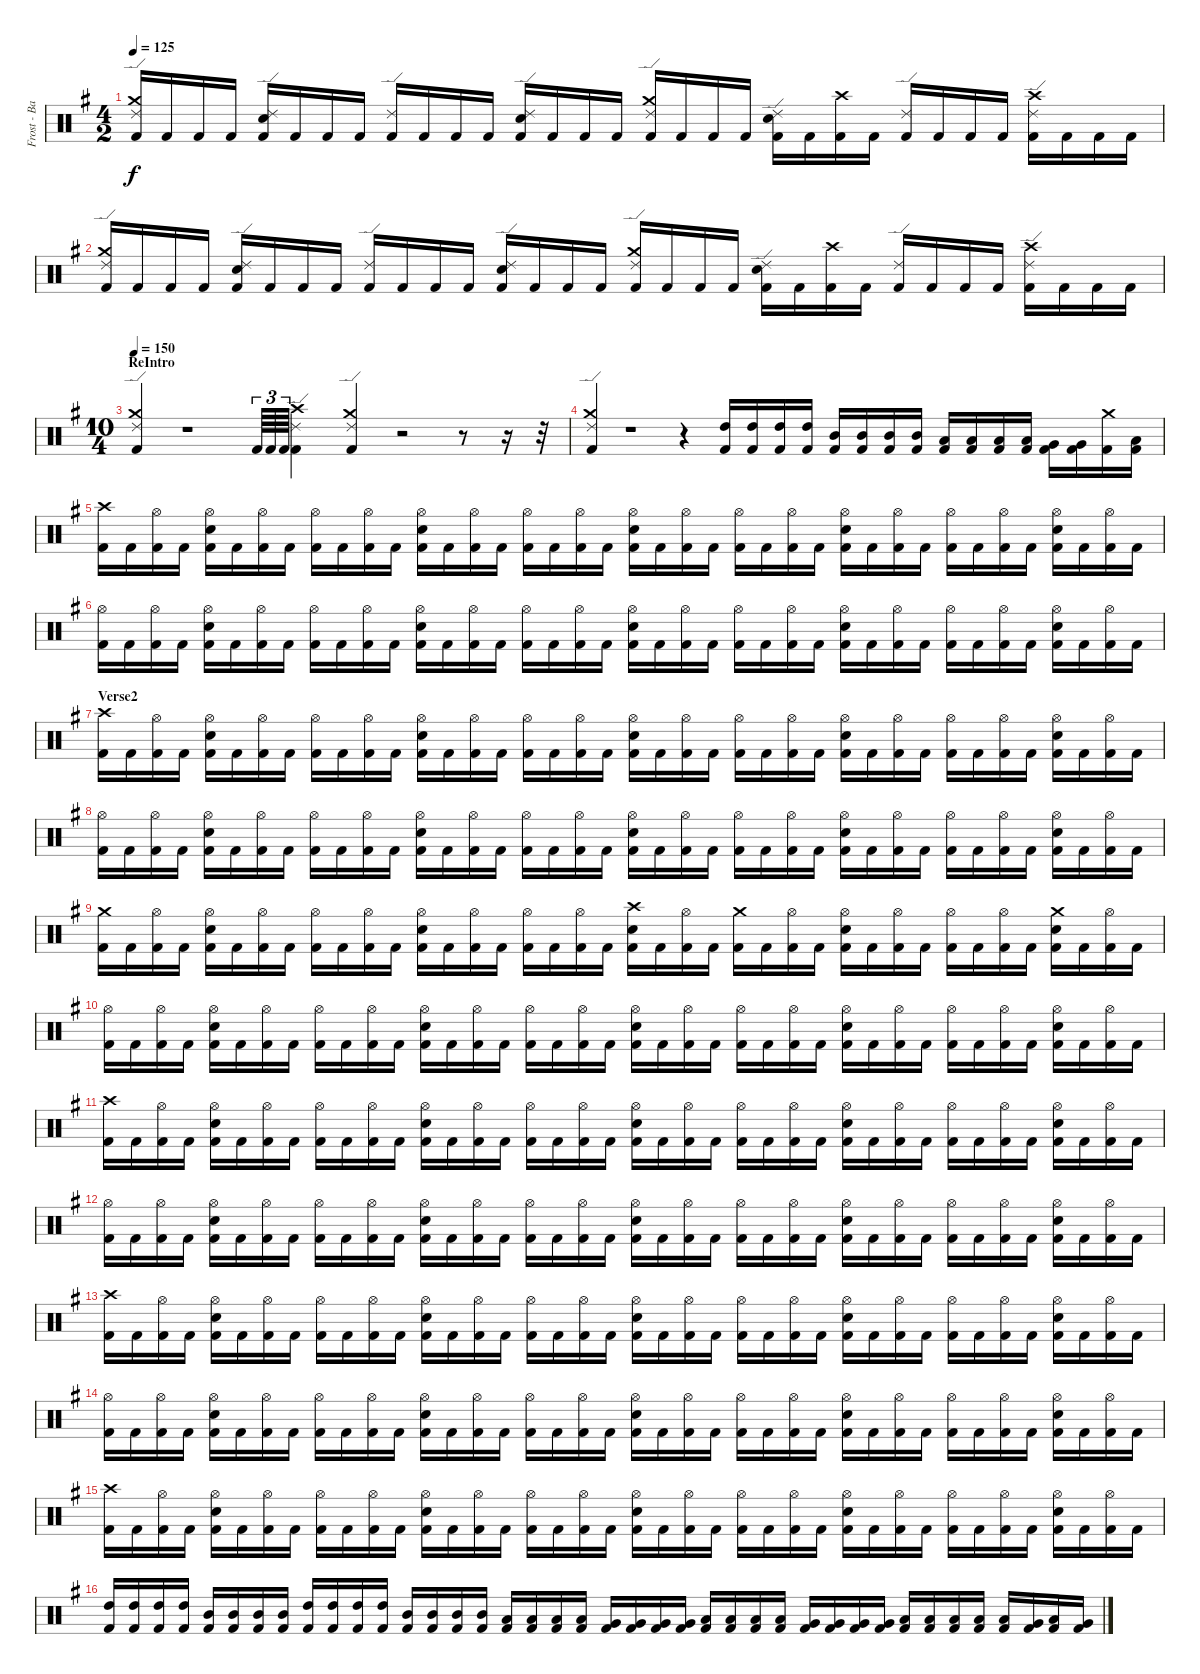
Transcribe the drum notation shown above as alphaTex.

\track ("Frost - Battery" "Frost - Ba") {instrument percussion}
\staff {score}
\articulation defaults
\ts (4 2)
\tempo 125
\clef neutral
\ks eminor
("Kick (hit) 2" "Crash medium (hit)" "Ride (edge) 2").16{dy f} "Kick (hit) 2".16 "Kick (hit) 2".16 "Kick (hit) 2".16 ("Kick (hit) 2" "Electric Snare (hit)" "Ride (edge) 2").16 "Kick (hit) 2".16 "Kick (hit) 2".16 "Kick (hit) 2".16 ("Kick (hit) 2" "Ride (edge) 2").16 "Kick (hit) 2".16 "Kick (hit) 2".16 "Kick (hit) 2".16 ("Kick (hit) 2" "Electric Snare (hit)" "Ride (edge) 2").16 "Kick (hit) 2".16 "Kick (hit) 2".16 "Kick (hit) 2".16 ("Kick (hit) 2" "Crash medium (hit)" "Ride (edge) 2").16 "Kick (hit) 2".16 "Kick (hit) 2".16 "Kick (hit) 2".16 ("Kick (hit) 2" "Electric Snare (hit)" "Ride (edge) 2").16 "Kick (hit) 2".16 ("Kick (hit) 2" "Crash high (hit)").16 "Kick (hit) 2".16 ("Kick (hit) 2" "Ride (edge) 2").16 "Kick (hit) 2".16 "Kick (hit) 2".16 "Kick (hit) 2".16 ("Kick (hit) 2" "Crash high (hit)" "Ride (edge) 2").16 "Kick (hit) 2".16 "Kick (hit) 2".16 "Kick (hit) 2".16 |
("Kick (hit) 2" "Crash medium (hit)" "Ride (edge) 2").16 "Kick (hit) 2".16 "Kick (hit) 2".16 "Kick (hit) 2".16 ("Kick (hit) 2" "Electric Snare (hit)" "Ride (edge) 2").16 "Kick (hit) 2".16 "Kick (hit) 2".16 "Kick (hit) 2".16 ("Kick (hit) 2" "Ride (edge) 2").16 "Kick (hit) 2".16 "Kick (hit) 2".16 "Kick (hit) 2".16 ("Kick (hit) 2" "Electric Snare (hit)" "Ride (edge) 2").16 "Kick (hit) 2".16 "Kick (hit) 2".16 "Kick (hit) 2".16 ("Kick (hit) 2" "Crash medium (hit)" "Ride (edge) 2").16 "Kick (hit) 2".16 "Kick (hit) 2".16 "Kick (hit) 2".16 ("Kick (hit) 2" "Electric Snare (hit)" "Ride (edge) 2").16 "Kick (hit) 2".16 ("Kick (hit) 2" "Crash high (hit)").16 "Kick (hit) 2".16 ("Kick (hit) 2" "Ride (edge) 2").16 "Kick (hit) 2".16 "Kick (hit) 2".16 "Kick (hit) 2".16 ("Kick (hit) 2" "Crash high (hit)" "Ride (edge) 2").16 "Kick (hit) 2".16 "Kick (hit) 2".16 "Kick (hit) 2".16 |
\ts (10 4)
\section ("" "ReIntro")
\tempo 150
("Kick (hit) 2" "Crash medium (hit)" "Ride (edge) 2").4 r.1 "Kick (hit) 2".64{tu (3 2)} "Kick (hit) 2".64{tu (3 2)} "Kick (hit) 2".64{tu (3 2)} ("Kick (hit) 2" "Crash high (hit)" "Ride (edge) 2").4 ("Kick (hit) 2" "Crash medium (hit)" "Ride (edge) 2").4 r.2 r.8 r.16 r.32 |
("Kick (hit) 2" "Ride (edge) 2" "Crash medium (hit)").4 r.1 r.4 ("Kick (hit) 2" "High Tom (hit)").16 ("Kick (hit) 2" "High Tom (hit)").16 ("Kick (hit) 2" "High Tom (hit)").16 ("Kick (hit) 2" "High Tom (hit)").16 ("Kick (hit) 2" "Mid Tom (hit)").16 ("Kick (hit) 2" "Mid Tom (hit)").16 ("Kick (hit) 2" "Mid Tom (hit)").16 ("Kick (hit) 2" "Mid Tom (hit)").16 ("Kick (hit) 2" "Low Tom (hit)").16 ("Kick (hit) 2" "Low Tom (hit)").16 ("Kick (hit) 2" "Low Tom (hit)").16 ("Kick (hit) 2" "Low Tom (hit)").16 ("Kick (hit) 2" "Very Low Tom (hit)").16 ("Kick (hit) 2" "Very Low Tom (hit)").16 ("Kick (hit) 2" "Crash medium (hit)").16 ("Kick (hit) 2" "Low Floor Tom (hit)").16 |
("Kick (hit) 2" "Crash high (hit)").16 "Kick (hit) 2".16 ("Kick (hit) 2" "Hi-Hat (open)").16 "Kick (hit) 2".16 ("Kick (hit) 2" "Hi-Hat (open)" "Electric Snare (hit)").16 "Kick (hit) 2".16 ("Kick (hit) 2" "Hi-Hat (open)").16 "Kick (hit) 2".16 ("Kick (hit) 2" "Hi-Hat (open)").16 "Kick (hit) 2".16 ("Kick (hit) 2" "Hi-Hat (open)").16 "Kick (hit) 2".16 ("Kick (hit) 2" "Hi-Hat (open)" "Electric Snare (hit)").16 "Kick (hit) 2".16 ("Kick (hit) 2" "Hi-Hat (open)").16 "Kick (hit) 2".16 ("Kick (hit) 2" "Hi-Hat (open)").16 "Kick (hit) 2".16 ("Kick (hit) 2" "Hi-Hat (open)").16 "Kick (hit) 2".16 ("Kick (hit) 2" "Hi-Hat (open)" "Electric Snare (hit)").16 "Kick (hit) 2".16 ("Kick (hit) 2" "Hi-Hat (open)").16 "Kick (hit) 2".16 ("Kick (hit) 2" "Hi-Hat (open)").16 "Kick (hit) 2".16 ("Kick (hit) 2" "Hi-Hat (open)").16 "Kick (hit) 2".16 ("Kick (hit) 2" "Hi-Hat (open)" "Electric Snare (hit)").16 "Kick (hit) 2".16 ("Kick (hit) 2" "Hi-Hat (open)").16 "Kick (hit) 2".16 ("Kick (hit) 2" "Hi-Hat (open)").16 "Kick (hit) 2".16 ("Kick (hit) 2" "Hi-Hat (open)").16 "Kick (hit) 2".16 ("Kick (hit) 2" "Hi-Hat (open)" "Electric Snare (hit)").16 "Kick (hit) 2".16 ("Kick (hit) 2" "Hi-Hat (open)").16 "Kick (hit) 2".16 |
("Kick (hit) 2" "Hi-Hat (open)").16 "Kick (hit) 2".16 ("Kick (hit) 2" "Hi-Hat (open)").16 "Kick (hit) 2".16 ("Kick (hit) 2" "Hi-Hat (open)" "Electric Snare (hit)").16 "Kick (hit) 2".16 ("Kick (hit) 2" "Hi-Hat (open)").16 "Kick (hit) 2".16 ("Kick (hit) 2" "Hi-Hat (open)").16 "Kick (hit) 2".16 ("Kick (hit) 2" "Hi-Hat (open)").16 "Kick (hit) 2".16 ("Kick (hit) 2" "Hi-Hat (open)" "Electric Snare (hit)").16 "Kick (hit) 2".16 ("Kick (hit) 2" "Hi-Hat (open)").16 "Kick (hit) 2".16 ("Kick (hit) 2" "Hi-Hat (open)").16 "Kick (hit) 2".16 ("Kick (hit) 2" "Hi-Hat (open)").16 "Kick (hit) 2".16 ("Kick (hit) 2" "Hi-Hat (open)" "Electric Snare (hit)").16 "Kick (hit) 2".16 ("Kick (hit) 2" "Hi-Hat (open)").16 "Kick (hit) 2".16 ("Kick (hit) 2" "Hi-Hat (open)").16 "Kick (hit) 2".16 ("Kick (hit) 2" "Hi-Hat (open)").16 "Kick (hit) 2".16 ("Kick (hit) 2" "Hi-Hat (open)" "Electric Snare (hit)").16 "Kick (hit) 2".16 ("Kick (hit) 2" "Hi-Hat (open)").16 "Kick (hit) 2".16 ("Kick (hit) 2" "Hi-Hat (open)").16 "Kick (hit) 2".16 ("Kick (hit) 2" "Hi-Hat (open)").16 "Kick (hit) 2".16 ("Kick (hit) 2" "Hi-Hat (open)" "Electric Snare (hit)").16 "Kick (hit) 2".16 ("Kick (hit) 2" "Hi-Hat (open)").16 "Kick (hit) 2".16 |
\section ("" "Verse2")
("Kick (hit) 2" "Crash high (hit)").16 "Kick (hit) 2".16 ("Kick (hit) 2" "Hi-Hat (open)").16 "Kick (hit) 2".16 ("Kick (hit) 2" "Hi-Hat (open)" "Electric Snare (hit)").16 "Kick (hit) 2".16 ("Kick (hit) 2" "Hi-Hat (open)").16 "Kick (hit) 2".16 ("Kick (hit) 2" "Hi-Hat (open)").16 "Kick (hit) 2".16 ("Kick (hit) 2" "Hi-Hat (open)").16 "Kick (hit) 2".16 ("Kick (hit) 2" "Hi-Hat (open)" "Electric Snare (hit)").16 "Kick (hit) 2".16 ("Kick (hit) 2" "Hi-Hat (open)").16 "Kick (hit) 2".16 ("Kick (hit) 2" "Hi-Hat (open)").16 "Kick (hit) 2".16 ("Kick (hit) 2" "Hi-Hat (open)").16 "Kick (hit) 2".16 ("Kick (hit) 2" "Hi-Hat (open)" "Electric Snare (hit)").16 "Kick (hit) 2".16 ("Kick (hit) 2" "Hi-Hat (open)").16 "Kick (hit) 2".16 ("Kick (hit) 2" "Hi-Hat (open)").16 "Kick (hit) 2".16 ("Kick (hit) 2" "Hi-Hat (open)").16 "Kick (hit) 2".16 ("Kick (hit) 2" "Hi-Hat (open)" "Electric Snare (hit)").16 "Kick (hit) 2".16 ("Kick (hit) 2" "Hi-Hat (open)").16 "Kick (hit) 2".16 ("Kick (hit) 2" "Hi-Hat (open)").16 "Kick (hit) 2".16 ("Kick (hit) 2" "Hi-Hat (open)").16 "Kick (hit) 2".16 ("Kick (hit) 2" "Hi-Hat (open)" "Electric Snare (hit)").16 "Kick (hit) 2".16 ("Kick (hit) 2" "Hi-Hat (open)").16 "Kick (hit) 2".16 |
("Kick (hit) 2" "Hi-Hat (open)").16 "Kick (hit) 2".16 ("Kick (hit) 2" "Hi-Hat (open)").16 "Kick (hit) 2".16 ("Kick (hit) 2" "Hi-Hat (open)" "Electric Snare (hit)").16 "Kick (hit) 2".16 ("Kick (hit) 2" "Hi-Hat (open)").16 "Kick (hit) 2".16 ("Kick (hit) 2" "Hi-Hat (open)").16 "Kick (hit) 2".16 ("Kick (hit) 2" "Hi-Hat (open)").16 "Kick (hit) 2".16 ("Kick (hit) 2" "Hi-Hat (open)" "Electric Snare (hit)").16 "Kick (hit) 2".16 ("Kick (hit) 2" "Hi-Hat (open)").16 "Kick (hit) 2".16 ("Kick (hit) 2" "Hi-Hat (open)").16 "Kick (hit) 2".16 ("Kick (hit) 2" "Hi-Hat (open)").16 "Kick (hit) 2".16 ("Kick (hit) 2" "Hi-Hat (open)" "Electric Snare (hit)").16 "Kick (hit) 2".16 ("Kick (hit) 2" "Hi-Hat (open)").16 "Kick (hit) 2".16 ("Kick (hit) 2" "Hi-Hat (open)").16 "Kick (hit) 2".16 ("Kick (hit) 2" "Hi-Hat (open)").16 "Kick (hit) 2".16 ("Kick (hit) 2" "Hi-Hat (open)" "Electric Snare (hit)").16 "Kick (hit) 2".16 ("Kick (hit) 2" "Hi-Hat (open)").16 "Kick (hit) 2".16 ("Kick (hit) 2" "Hi-Hat (open)").16 "Kick (hit) 2".16 ("Kick (hit) 2" "Hi-Hat (open)").16 "Kick (hit) 2".16 ("Kick (hit) 2" "Hi-Hat (open)" "Electric Snare (hit)").16 "Kick (hit) 2".16 ("Kick (hit) 2" "Hi-Hat (open)").16 "Kick (hit) 2".16 |
("Kick (hit) 2" "Crash medium (hit)").16 "Kick (hit) 2".16 ("Kick (hit) 2" "Hi-Hat (open)").16 "Kick (hit) 2".16 ("Kick (hit) 2" "Hi-Hat (open)" "Electric Snare (hit)").16 "Kick (hit) 2".16 ("Kick (hit) 2" "Hi-Hat (open)").16 "Kick (hit) 2".16 ("Kick (hit) 2" "Hi-Hat (open)").16 "Kick (hit) 2".16 ("Kick (hit) 2" "Hi-Hat (open)").16 "Kick (hit) 2".16 ("Kick (hit) 2" "Hi-Hat (open)" "Electric Snare (hit)").16 "Kick (hit) 2".16 ("Kick (hit) 2" "Hi-Hat (open)").16 "Kick (hit) 2".16 ("Kick (hit) 2" "Hi-Hat (open)").16 "Kick (hit) 2".16 ("Kick (hit) 2" "Hi-Hat (open)").16 "Kick (hit) 2".16 ("Kick (hit) 2" "Crash high (hit)" "Electric Snare (hit)").16 "Kick (hit) 2".16 ("Kick (hit) 2" "Hi-Hat (open)").16 "Kick (hit) 2".16 ("Kick (hit) 2" "Crash medium (hit)").16 "Kick (hit) 2".16 ("Kick (hit) 2" "Hi-Hat (open)").16 "Kick (hit) 2".16 ("Kick (hit) 2" "Hi-Hat (open)" "Electric Snare (hit)").16 "Kick (hit) 2".16 ("Kick (hit) 2" "Hi-Hat (open)").16 "Kick (hit) 2".16 ("Kick (hit) 2" "Hi-Hat (open)").16 "Kick (hit) 2".16 ("Kick (hit) 2" "Hi-Hat (open)").16 "Kick (hit) 2".16 ("Kick (hit) 2" "Crash medium (hit)" "Electric Snare (hit)").16 "Kick (hit) 2".16 ("Kick (hit) 2" "Hi-Hat (open)").16 "Kick (hit) 2".16 |
("Kick (hit) 2" "Hi-Hat (open)").16 "Kick (hit) 2".16 ("Kick (hit) 2" "Hi-Hat (open)").16 "Kick (hit) 2".16 ("Kick (hit) 2" "Hi-Hat (open)" "Electric Snare (hit)").16 "Kick (hit) 2".16 ("Kick (hit) 2" "Hi-Hat (open)").16 "Kick (hit) 2".16 ("Kick (hit) 2" "Hi-Hat (open)").16 "Kick (hit) 2".16 ("Kick (hit) 2" "Hi-Hat (open)").16 "Kick (hit) 2".16 ("Kick (hit) 2" "Hi-Hat (open)" "Electric Snare (hit)").16 "Kick (hit) 2".16 ("Kick (hit) 2" "Hi-Hat (open)").16 "Kick (hit) 2".16 ("Kick (hit) 2" "Hi-Hat (open)").16 "Kick (hit) 2".16 ("Kick (hit) 2" "Hi-Hat (open)").16 "Kick (hit) 2".16 ("Kick (hit) 2" "Hi-Hat (open)" "Electric Snare (hit)").16 "Kick (hit) 2".16 ("Kick (hit) 2" "Hi-Hat (open)").16 "Kick (hit) 2".16 ("Kick (hit) 2" "Hi-Hat (open)").16 "Kick (hit) 2".16 ("Kick (hit) 2" "Hi-Hat (open)").16 "Kick (hit) 2".16 ("Kick (hit) 2" "Hi-Hat (open)" "Electric Snare (hit)").16 "Kick (hit) 2".16 ("Kick (hit) 2" "Hi-Hat (open)").16 "Kick (hit) 2".16 ("Kick (hit) 2" "Hi-Hat (open)").16 "Kick (hit) 2".16 ("Kick (hit) 2" "Hi-Hat (open)").16 "Kick (hit) 2".16 ("Kick (hit) 2" "Hi-Hat (open)" "Electric Snare (hit)").16 "Kick (hit) 2".16 ("Kick (hit) 2" "Hi-Hat (open)").16 "Kick (hit) 2".16 |
("Kick (hit) 2" "Crash high (hit)").16 "Kick (hit) 2".16 ("Kick (hit) 2" "Hi-Hat (open)").16 "Kick (hit) 2".16 ("Kick (hit) 2" "Hi-Hat (open)" "Electric Snare (hit)").16 "Kick (hit) 2".16 ("Kick (hit) 2" "Hi-Hat (open)").16 "Kick (hit) 2".16 ("Kick (hit) 2" "Hi-Hat (open)").16 "Kick (hit) 2".16 ("Kick (hit) 2" "Hi-Hat (open)").16 "Kick (hit) 2".16 ("Kick (hit) 2" "Hi-Hat (open)" "Electric Snare (hit)").16 "Kick (hit) 2".16 ("Kick (hit) 2" "Hi-Hat (open)").16 "Kick (hit) 2".16 ("Kick (hit) 2" "Hi-Hat (open)").16 "Kick (hit) 2".16 ("Kick (hit) 2" "Hi-Hat (open)").16 "Kick (hit) 2".16 ("Kick (hit) 2" "Hi-Hat (open)" "Electric Snare (hit)").16 "Kick (hit) 2".16 ("Kick (hit) 2" "Hi-Hat (open)").16 "Kick (hit) 2".16 ("Kick (hit) 2" "Hi-Hat (open)").16 "Kick (hit) 2".16 ("Kick (hit) 2" "Hi-Hat (open)").16 "Kick (hit) 2".16 ("Kick (hit) 2" "Hi-Hat (open)" "Electric Snare (hit)").16 "Kick (hit) 2".16 ("Kick (hit) 2" "Hi-Hat (open)").16 "Kick (hit) 2".16 ("Kick (hit) 2" "Hi-Hat (open)").16 "Kick (hit) 2".16 ("Kick (hit) 2" "Hi-Hat (open)").16 "Kick (hit) 2".16 ("Kick (hit) 2" "Hi-Hat (open)" "Electric Snare (hit)").16 "Kick (hit) 2".16 ("Kick (hit) 2" "Hi-Hat (open)").16 "Kick (hit) 2".16 |
("Kick (hit) 2" "Hi-Hat (open)").16 "Kick (hit) 2".16 ("Kick (hit) 2" "Hi-Hat (open)").16 "Kick (hit) 2".16 ("Kick (hit) 2" "Hi-Hat (open)" "Electric Snare (hit)").16 "Kick (hit) 2".16 ("Kick (hit) 2" "Hi-Hat (open)").16 "Kick (hit) 2".16 ("Kick (hit) 2" "Hi-Hat (open)").16 "Kick (hit) 2".16 ("Kick (hit) 2" "Hi-Hat (open)").16 "Kick (hit) 2".16 ("Kick (hit) 2" "Hi-Hat (open)" "Electric Snare (hit)").16 "Kick (hit) 2".16 ("Kick (hit) 2" "Hi-Hat (open)").16 "Kick (hit) 2".16 ("Kick (hit) 2" "Hi-Hat (open)").16 "Kick (hit) 2".16 ("Kick (hit) 2" "Hi-Hat (open)").16 "Kick (hit) 2".16 ("Kick (hit) 2" "Hi-Hat (open)" "Electric Snare (hit)").16 "Kick (hit) 2".16 ("Kick (hit) 2" "Hi-Hat (open)").16 "Kick (hit) 2".16 ("Kick (hit) 2" "Hi-Hat (open)").16 "Kick (hit) 2".16 ("Kick (hit) 2" "Hi-Hat (open)").16 "Kick (hit) 2".16 ("Kick (hit) 2" "Hi-Hat (open)" "Electric Snare (hit)").16 "Kick (hit) 2".16 ("Kick (hit) 2" "Hi-Hat (open)").16 "Kick (hit) 2".16 ("Kick (hit) 2" "Hi-Hat (open)").16 "Kick (hit) 2".16 ("Kick (hit) 2" "Hi-Hat (open)").16 "Kick (hit) 2".16 ("Kick (hit) 2" "Hi-Hat (open)" "Electric Snare (hit)").16 "Kick (hit) 2".16 ("Kick (hit) 2" "Hi-Hat (open)").16 "Kick (hit) 2".16 |
("Kick (hit) 2" "Crash high (hit)").16 "Kick (hit) 2".16 ("Kick (hit) 2" "Hi-Hat (open)").16 "Kick (hit) 2".16 ("Kick (hit) 2" "Hi-Hat (open)" "Electric Snare (hit)").16 "Kick (hit) 2".16 ("Kick (hit) 2" "Hi-Hat (open)").16 "Kick (hit) 2".16 ("Kick (hit) 2" "Hi-Hat (open)").16 "Kick (hit) 2".16 ("Kick (hit) 2" "Hi-Hat (open)").16 "Kick (hit) 2".16 ("Kick (hit) 2" "Hi-Hat (open)" "Electric Snare (hit)").16 "Kick (hit) 2".16 ("Kick (hit) 2" "Hi-Hat (open)").16 "Kick (hit) 2".16 ("Kick (hit) 2" "Hi-Hat (open)").16 "Kick (hit) 2".16 ("Kick (hit) 2" "Hi-Hat (open)").16 "Kick (hit) 2".16 ("Kick (hit) 2" "Hi-Hat (open)" "Electric Snare (hit)").16 "Kick (hit) 2".16 ("Kick (hit) 2" "Hi-Hat (open)").16 "Kick (hit) 2".16 ("Kick (hit) 2" "Hi-Hat (open)").16 "Kick (hit) 2".16 ("Kick (hit) 2" "Hi-Hat (open)").16 "Kick (hit) 2".16 ("Kick (hit) 2" "Hi-Hat (open)" "Electric Snare (hit)").16 "Kick (hit) 2".16 ("Kick (hit) 2" "Hi-Hat (open)").16 "Kick (hit) 2".16 ("Kick (hit) 2" "Hi-Hat (open)").16 "Kick (hit) 2".16 ("Kick (hit) 2" "Hi-Hat (open)").16 "Kick (hit) 2".16 ("Kick (hit) 2" "Hi-Hat (open)" "Electric Snare (hit)").16 "Kick (hit) 2".16 ("Kick (hit) 2" "Hi-Hat (open)").16 "Kick (hit) 2".16 |
("Kick (hit) 2" "Hi-Hat (open)").16 "Kick (hit) 2".16 ("Kick (hit) 2" "Hi-Hat (open)").16 "Kick (hit) 2".16 ("Kick (hit) 2" "Hi-Hat (open)" "Electric Snare (hit)").16 "Kick (hit) 2".16 ("Kick (hit) 2" "Hi-Hat (open)").16 "Kick (hit) 2".16 ("Kick (hit) 2" "Hi-Hat (open)").16 "Kick (hit) 2".16 ("Kick (hit) 2" "Hi-Hat (open)").16 "Kick (hit) 2".16 ("Kick (hit) 2" "Hi-Hat (open)" "Electric Snare (hit)").16 "Kick (hit) 2".16 ("Kick (hit) 2" "Hi-Hat (open)").16 "Kick (hit) 2".16 ("Kick (hit) 2" "Hi-Hat (open)").16 "Kick (hit) 2".16 ("Kick (hit) 2" "Hi-Hat (open)").16 "Kick (hit) 2".16 ("Kick (hit) 2" "Hi-Hat (open)" "Electric Snare (hit)").16 "Kick (hit) 2".16 ("Kick (hit) 2" "Hi-Hat (open)").16 "Kick (hit) 2".16 ("Kick (hit) 2" "Hi-Hat (open)").16 "Kick (hit) 2".16 ("Kick (hit) 2" "Hi-Hat (open)").16 "Kick (hit) 2".16 ("Kick (hit) 2" "Hi-Hat (open)" "Electric Snare (hit)").16 "Kick (hit) 2".16 ("Kick (hit) 2" "Hi-Hat (open)").16 "Kick (hit) 2".16 ("Kick (hit) 2" "Hi-Hat (open)").16 "Kick (hit) 2".16 ("Kick (hit) 2" "Hi-Hat (open)").16 "Kick (hit) 2".16 ("Kick (hit) 2" "Hi-Hat (open)" "Electric Snare (hit)").16 "Kick (hit) 2".16 ("Kick (hit) 2" "Hi-Hat (open)").16 "Kick (hit) 2".16 |
("Kick (hit) 2" "Crash high (hit)").16 "Kick (hit) 2".16 ("Kick (hit) 2" "Hi-Hat (open)").16 "Kick (hit) 2".16 ("Kick (hit) 2" "Hi-Hat (open)" "Electric Snare (hit)").16 "Kick (hit) 2".16 ("Kick (hit) 2" "Hi-Hat (open)").16 "Kick (hit) 2".16 ("Kick (hit) 2" "Hi-Hat (open)").16 "Kick (hit) 2".16 ("Kick (hit) 2" "Hi-Hat (open)").16 "Kick (hit) 2".16 ("Kick (hit) 2" "Hi-Hat (open)" "Electric Snare (hit)").16 "Kick (hit) 2".16 ("Kick (hit) 2" "Hi-Hat (open)").16 "Kick (hit) 2".16 ("Kick (hit) 2" "Hi-Hat (open)").16 "Kick (hit) 2".16 ("Kick (hit) 2" "Hi-Hat (open)").16 "Kick (hit) 2".16 ("Kick (hit) 2" "Hi-Hat (open)" "Electric Snare (hit)").16 "Kick (hit) 2".16 ("Kick (hit) 2" "Hi-Hat (open)").16 "Kick (hit) 2".16 ("Kick (hit) 2" "Hi-Hat (open)").16 "Kick (hit) 2".16 ("Kick (hit) 2" "Hi-Hat (open)").16 "Kick (hit) 2".16 ("Kick (hit) 2" "Hi-Hat (open)" "Electric Snare (hit)").16 "Kick (hit) 2".16 ("Kick (hit) 2" "Hi-Hat (open)").16 "Kick (hit) 2".16 ("Kick (hit) 2" "Hi-Hat (open)").16 "Kick (hit) 2".16 ("Kick (hit) 2" "Hi-Hat (open)").16 "Kick (hit) 2".16 ("Kick (hit) 2" "Hi-Hat (open)" "Electric Snare (hit)").16 "Kick (hit) 2".16 ("Kick (hit) 2" "Hi-Hat (open)").16 "Kick (hit) 2".16 |
("Kick (hit) 2" "High Tom (hit)").16 ("Kick (hit) 2" "High Tom (hit)").16 ("Kick (hit) 2" "High Tom (hit)").16 ("Kick (hit) 2" "High Tom (hit)").16 ("Kick (hit) 2" "Mid Tom (hit)").16 ("Kick (hit) 2" "Mid Tom (hit)").16 ("Kick (hit) 2" "Mid Tom (hit)").16 ("Kick (hit) 2" "Mid Tom (hit)").16 ("Kick (hit) 2" "High Tom (hit)").16 ("Kick (hit) 2" "High Tom (hit)").16 ("Kick (hit) 2" "High Tom (hit)").16 ("Kick (hit) 2" "High Tom (hit)").16 ("Kick (hit) 2" "Mid Tom (hit)").16 ("Kick (hit) 2" "Mid Tom (hit)").16 ("Kick (hit) 2" "Mid Tom (hit)").16 ("Kick (hit) 2" "Mid Tom (hit)").16 ("Kick (hit) 2" "Low Tom (hit)").16 ("Kick (hit) 2" "Low Tom (hit)").16 ("Kick (hit) 2" "Low Tom (hit)").16 ("Kick (hit) 2" "Low Tom (hit)").16 ("Kick (hit) 2" "Very Low Tom (hit)").16 ("Kick (hit) 2" "Very Low Tom (hit)").16 ("Kick (hit) 2" "Very Low Tom (hit)").16 ("Kick (hit) 2" "Very Low Tom (hit)").16 ("Kick (hit) 2" "Low Tom (hit)").16 ("Kick (hit) 2" "Low Tom (hit)").16 ("Kick (hit) 2" "Low Tom (hit)").16 ("Kick (hit) 2" "Low Tom (hit)").16 ("Kick (hit) 2" "Very Low Tom (hit)").16 ("Kick (hit) 2" "Very Low Tom (hit)").16 ("Kick (hit) 2" "Very Low Tom (hit)").16 ("Kick (hit) 2" "Very Low Tom (hit)").16 ("Kick (hit) 2" "Low Floor Tom (hit)").16 ("Kick (hit) 2" "Low Floor Tom (hit)").16 ("Kick (hit) 2" "Low Floor Tom (hit)").16 ("Kick (hit) 2" "Low Floor Tom (hit)").16 ("Kick (hit) 2" "Low Tom (hit)").16 ("Kick (hit) 2" "Very Low Tom (hit)").16 ("Kick (hit) 2" "Low Floor Tom (hit)").16 ("Kick (hit) 2" "Very Low Tom (hit)").16
